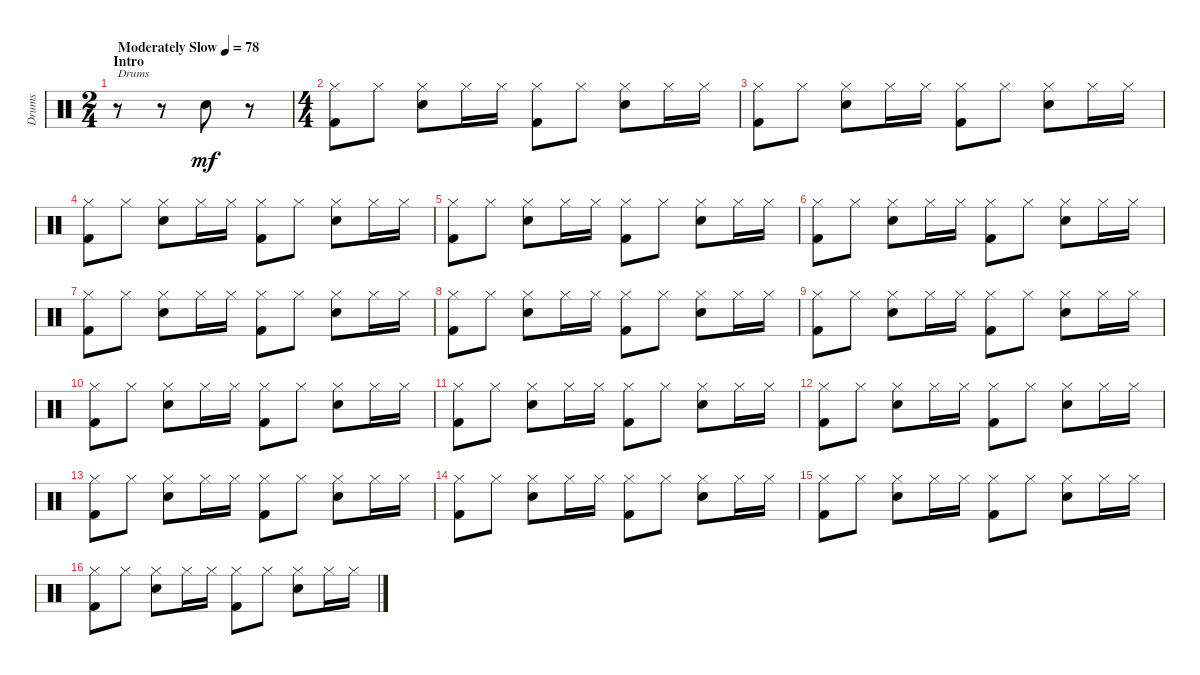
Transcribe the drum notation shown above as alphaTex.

\track ("Drums" "Drums") {instrument percussion}
\staff {score}
\articulation defaults
\ts (2 4)
\section ("" "Intro")
\tempo (78 "Moderately Slow")
\clef neutral
\ks c
r.8{txt "Drums" dy mf} r.8 "Snare (hit) 2".8 r.8 |
\ts (4 4)
("Hi-Hat (closed)" "Kick (hit) 2").8 "Hi-Hat (closed)".8 ("Hi-Hat (closed)" "Snare (hit) 2").8 "Hi-Hat (closed)".16 "Hi-Hat (closed)".16 ("Hi-Hat (closed)" "Kick (hit) 2").8 "Hi-Hat (closed)".8 ("Hi-Hat (closed)" "Snare (hit) 2").8 "Hi-Hat (closed)".16 "Hi-Hat (closed)".16 |
("Hi-Hat (closed)" "Kick (hit) 2").8 "Hi-Hat (closed)".8 ("Hi-Hat (closed)" "Snare (hit) 2").8 "Hi-Hat (closed)".16 "Hi-Hat (closed)".16 ("Hi-Hat (closed)" "Kick (hit) 2").8 "Hi-Hat (closed)".8 ("Hi-Hat (closed)" "Snare (hit) 2").8 "Hi-Hat (closed)".16 "Hi-Hat (closed)".16 |
("Hi-Hat (closed)" "Kick (hit) 2").8 "Hi-Hat (closed)".8 ("Hi-Hat (closed)" "Snare (hit) 2").8 "Hi-Hat (closed)".16 "Hi-Hat (closed)".16 ("Hi-Hat (closed)" "Kick (hit) 2").8 "Hi-Hat (closed)".8 ("Hi-Hat (closed)" "Snare (hit) 2").8 "Hi-Hat (closed)".16 "Hi-Hat (closed)".16 |
("Hi-Hat (closed)" "Kick (hit) 2").8 "Hi-Hat (closed)".8 ("Hi-Hat (closed)" "Snare (hit) 2").8 "Hi-Hat (closed)".16 "Hi-Hat (closed)".16 ("Hi-Hat (closed)" "Kick (hit) 2").8 "Hi-Hat (closed)".8 ("Hi-Hat (closed)" "Snare (hit) 2").8 "Hi-Hat (closed)".16 "Hi-Hat (closed)".16 |
("Hi-Hat (closed)" "Kick (hit) 2").8 "Hi-Hat (closed)".8 ("Hi-Hat (closed)" "Snare (hit) 2").8 "Hi-Hat (closed)".16 "Hi-Hat (closed)".16 ("Hi-Hat (closed)" "Kick (hit) 2").8 "Hi-Hat (closed)".8 ("Hi-Hat (closed)" "Snare (hit) 2").8 "Hi-Hat (closed)".16 "Hi-Hat (closed)".16 |
("Hi-Hat (closed)" "Kick (hit) 2").8 "Hi-Hat (closed)".8 ("Hi-Hat (closed)" "Snare (hit) 2").8 "Hi-Hat (closed)".16 "Hi-Hat (closed)".16 ("Hi-Hat (closed)" "Kick (hit) 2").8 "Hi-Hat (closed)".8 ("Hi-Hat (closed)" "Snare (hit) 2").8 "Hi-Hat (closed)".16 "Hi-Hat (closed)".16 |
("Hi-Hat (closed)" "Kick (hit) 2").8 "Hi-Hat (closed)".8 ("Hi-Hat (closed)" "Snare (hit) 2").8 "Hi-Hat (closed)".16 "Hi-Hat (closed)".16 ("Hi-Hat (closed)" "Kick (hit) 2").8 "Hi-Hat (closed)".8 ("Hi-Hat (closed)" "Snare (hit) 2").8 "Hi-Hat (closed)".16 "Hi-Hat (closed)".16 |
("Hi-Hat (closed)" "Kick (hit) 2").8 "Hi-Hat (closed)".8 ("Hi-Hat (closed)" "Snare (hit) 2").8 "Hi-Hat (closed)".16 "Hi-Hat (closed)".16 ("Hi-Hat (closed)" "Kick (hit) 2").8 "Hi-Hat (closed)".8 ("Hi-Hat (closed)" "Snare (hit) 2").8 "Hi-Hat (closed)".16 "Hi-Hat (closed)".16 |
("Hi-Hat (closed)" "Kick (hit) 2").8 "Hi-Hat (closed)".8 ("Hi-Hat (closed)" "Snare (hit) 2").8 "Hi-Hat (closed)".16 "Hi-Hat (closed)".16 ("Hi-Hat (closed)" "Kick (hit) 2").8 "Hi-Hat (closed)".8 ("Hi-Hat (closed)" "Snare (hit) 2").8 "Hi-Hat (closed)".16 "Hi-Hat (closed)".16 |
("Hi-Hat (closed)" "Kick (hit) 2").8 "Hi-Hat (closed)".8 ("Hi-Hat (closed)" "Snare (hit) 2").8 "Hi-Hat (closed)".16 "Hi-Hat (closed)".16 ("Hi-Hat (closed)" "Kick (hit) 2").8 "Hi-Hat (closed)".8 ("Hi-Hat (closed)" "Snare (hit) 2").8 "Hi-Hat (closed)".16 "Hi-Hat (closed)".16 |
("Hi-Hat (closed)" "Kick (hit) 2").8 "Hi-Hat (closed)".8 ("Hi-Hat (closed)" "Snare (hit) 2").8 "Hi-Hat (closed)".16 "Hi-Hat (closed)".16 ("Hi-Hat (closed)" "Kick (hit) 2").8 "Hi-Hat (closed)".8 ("Hi-Hat (closed)" "Snare (hit) 2").8 "Hi-Hat (closed)".16 "Hi-Hat (closed)".16 |
("Hi-Hat (closed)" "Kick (hit) 2").8 "Hi-Hat (closed)".8 ("Hi-Hat (closed)" "Snare (hit) 2").8 "Hi-Hat (closed)".16 "Hi-Hat (closed)".16 ("Hi-Hat (closed)" "Kick (hit) 2").8 "Hi-Hat (closed)".8 ("Hi-Hat (closed)" "Snare (hit) 2").8 "Hi-Hat (closed)".16 "Hi-Hat (closed)".16 |
("Hi-Hat (closed)" "Kick (hit) 2").8 "Hi-Hat (closed)".8 ("Hi-Hat (closed)" "Snare (hit) 2").8 "Hi-Hat (closed)".16 "Hi-Hat (closed)".16 ("Hi-Hat (closed)" "Kick (hit) 2").8 "Hi-Hat (closed)".8 ("Hi-Hat (closed)" "Snare (hit) 2").8 "Hi-Hat (closed)".16 "Hi-Hat (closed)".16 |
("Hi-Hat (closed)" "Kick (hit) 2").8 "Hi-Hat (closed)".8 ("Hi-Hat (closed)" "Snare (hit) 2").8 "Hi-Hat (closed)".16 "Hi-Hat (closed)".16 ("Hi-Hat (closed)" "Kick (hit) 2").8 "Hi-Hat (closed)".8 ("Hi-Hat (closed)" "Snare (hit) 2").8 "Hi-Hat (closed)".16 "Hi-Hat (closed)".16 |
("Hi-Hat (closed)" "Kick (hit) 2").8 "Hi-Hat (closed)".8 ("Hi-Hat (closed)" "Snare (hit) 2").8 "Hi-Hat (closed)".16 "Hi-Hat (closed)".16 ("Hi-Hat (closed)" "Kick (hit) 2").8 "Hi-Hat (closed)".8 ("Hi-Hat (closed)" "Snare (hit) 2").8 "Hi-Hat (closed)".16 "Hi-Hat (closed)".16
